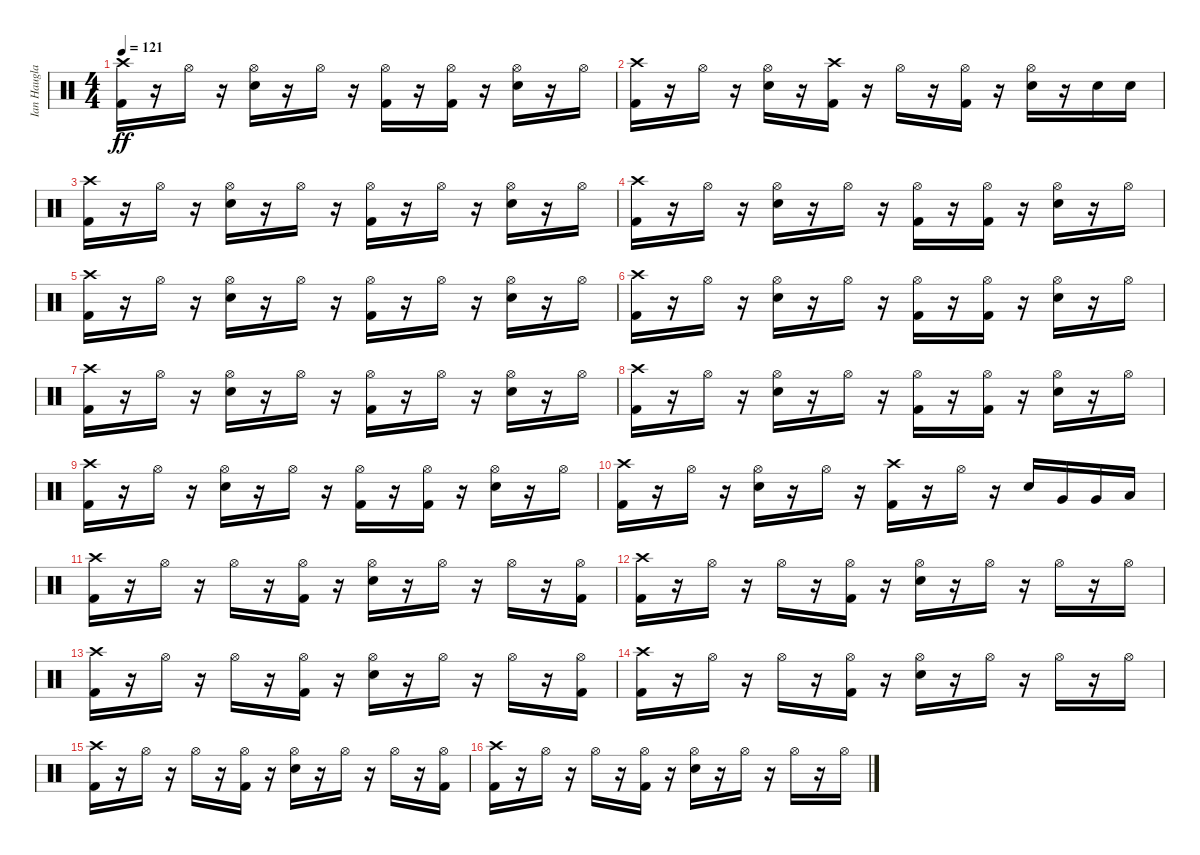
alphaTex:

\track ("Ian Haugland" "Ian Haugla") {instrument percussion}
\staff {score}
\articulation defaults
\ts (4 4)
\tempo 121
\clef neutral
\ks c
("Crash high (hit)" "Kick (hit) 2").16{dy ff} r.16 "Hi-Hat (open)".16 r.16 ("Hi-Hat (open)" "Electric Snare (hit)").16 r.16 "Hi-Hat (open)".16 r.16 ("Hi-Hat (open)" "Kick (hit) 2").16 r.16 ("Hi-Hat (open)" "Kick (hit) 2").16 r.16 ("Hi-Hat (open)" "Electric Snare (hit)").16 r.16 "Hi-Hat (open)".16 |
("Crash high (hit)" "Kick (hit) 2").16 r.16 "Hi-Hat (open)".16 r.16 ("Hi-Hat (open)" "Electric Snare (hit)").16 r.16 ("Crash high (hit)" "Kick (hit) 2").16 r.16 "Hi-Hat (open)".16 r.16 ("Hi-Hat (open)" "Kick (hit) 2").16 r.16 ("Hi-Hat (open)" "Electric Snare (hit)").16 r.16 "Electric Snare (hit)".16 "Electric Snare (hit)".16 |
("Crash high (hit)" "Kick (hit) 2").16 r.16 "Hi-Hat (open)".16 r.16 ("Hi-Hat (open)" "Electric Snare (hit)").16 r.16 "Hi-Hat (open)".16 r.16 ("Hi-Hat (open)" "Kick (hit) 2").16 r.16 "Hi-Hat (open)".16 r.16 ("Hi-Hat (open)" "Electric Snare (hit)").16 r.16 "Hi-Hat (open)".16 |
("Crash high (hit)" "Kick (hit) 2").16 r.16 "Hi-Hat (open)".16 r.16 ("Hi-Hat (open)" "Electric Snare (hit)").16 r.16 "Hi-Hat (open)".16 r.16 ("Hi-Hat (open)" "Kick (hit) 2").16 r.16 ("Hi-Hat (open)" "Kick (hit) 2").16 r.16 ("Hi-Hat (open)" "Electric Snare (hit)").16 r.16 "Hi-Hat (open)".16 |
("Crash high (hit)" "Kick (hit) 2").16 r.16 "Hi-Hat (open)".16 r.16 ("Hi-Hat (open)" "Electric Snare (hit)").16 r.16 "Hi-Hat (open)".16 r.16 ("Hi-Hat (open)" "Kick (hit) 2").16 r.16 "Hi-Hat (open)".16 r.16 ("Hi-Hat (open)" "Electric Snare (hit)").16 r.16 "Hi-Hat (open)".16 |
("Crash high (hit)" "Kick (hit) 2").16 r.16 "Hi-Hat (open)".16 r.16 ("Hi-Hat (open)" "Electric Snare (hit)").16 r.16 "Hi-Hat (open)".16 r.16 ("Hi-Hat (open)" "Kick (hit) 2").16 r.16 ("Hi-Hat (open)" "Kick (hit) 2").16 r.16 ("Hi-Hat (open)" "Electric Snare (hit)").16 r.16 "Hi-Hat (open)".16 |
("Crash high (hit)" "Kick (hit) 2").16 r.16 "Hi-Hat (open)".16 r.16 ("Hi-Hat (open)" "Electric Snare (hit)").16 r.16 "Hi-Hat (open)".16 r.16 ("Hi-Hat (open)" "Kick (hit) 2").16 r.16 "Hi-Hat (open)".16 r.16 ("Hi-Hat (open)" "Electric Snare (hit)").16 r.16 "Hi-Hat (open)".16 |
("Crash high (hit)" "Kick (hit) 2").16 r.16 "Hi-Hat (open)".16 r.16 ("Hi-Hat (open)" "Electric Snare (hit)").16 r.16 "Hi-Hat (open)".16 r.16 ("Hi-Hat (open)" "Kick (hit) 2").16 r.16 ("Hi-Hat (open)" "Kick (hit) 2").16 r.16 ("Hi-Hat (open)" "Electric Snare (hit)").16 r.16 "Hi-Hat (open)".16 |
("Crash high (hit)" "Kick (hit) 2").16 r.16 "Hi-Hat (open)".16 r.16 ("Hi-Hat (open)" "Electric Snare (hit)").16 r.16 "Hi-Hat (open)".16 r.16 ("Hi-Hat (open)" "Kick (hit) 2").16 r.16 ("Hi-Hat (open)" "Kick (hit) 2").16 r.16 ("Hi-Hat (open)" "Electric Snare (hit)").16 r.16 "Hi-Hat (open)".16 |
("Crash high (hit)" "Kick (hit) 2").16 r.16 "Hi-Hat (open)".16 r.16 ("Hi-Hat (open)" "Electric Snare (hit)").16 r.16 "Hi-Hat (open)".16 r.16 ("Crash high (hit)" "Kick (hit) 2").16 r.16 "Hi-Hat (open)".16 r.16 "Electric Snare (hit)".16 "Very Low Tom (hit)".16 "Very Low Tom (hit)".16 "Low Floor Tom (hit)".16 |
("Crash high (hit)" "Kick (hit) 2").16 r.16 "Hi-Hat (open)".16 r.16 "Hi-Hat (open)".16 r.16 ("Hi-Hat (open)" "Kick (hit) 2").16 r.16 ("Hi-Hat (open)" "Electric Snare (hit)").16 r.16 "Hi-Hat (open)".16 r.16 "Hi-Hat (open)".16 r.16 ("Hi-Hat (open)" "Kick (hit) 2").16 |
("Crash high (hit)" "Kick (hit) 2").16 r.16 "Hi-Hat (open)".16 r.16 "Hi-Hat (open)".16 r.16 ("Hi-Hat (open)" "Kick (hit) 2").16 r.16 ("Hi-Hat (open)" "Electric Snare (hit)").16 r.16 "Hi-Hat (open)".16 r.16 "Hi-Hat (open)".16 r.16 "Hi-Hat (open)".16 |
("Crash high (hit)" "Kick (hit) 2").16 r.16 "Hi-Hat (open)".16 r.16 "Hi-Hat (open)".16 r.16 ("Hi-Hat (open)" "Kick (hit) 2").16 r.16 ("Hi-Hat (open)" "Electric Snare (hit)").16 r.16 "Hi-Hat (open)".16 r.16 "Hi-Hat (open)".16 r.16 ("Hi-Hat (open)" "Kick (hit) 2").16 |
("Crash high (hit)" "Kick (hit) 2").16 r.16 "Hi-Hat (open)".16 r.16 "Hi-Hat (open)".16 r.16 ("Hi-Hat (open)" "Kick (hit) 2").16 r.16 ("Hi-Hat (open)" "Electric Snare (hit)").16 r.16 "Hi-Hat (open)".16 r.16 "Hi-Hat (open)".16 r.16 "Hi-Hat (open)".16 |
("Crash high (hit)" "Kick (hit) 2").16 r.16 "Hi-Hat (open)".16 r.16 "Hi-Hat (open)".16 r.16 ("Hi-Hat (open)" "Kick (hit) 2").16 r.16 ("Hi-Hat (open)" "Electric Snare (hit)").16 r.16 "Hi-Hat (open)".16 r.16 "Hi-Hat (open)".16 r.16 ("Hi-Hat (open)" "Kick (hit) 2").16 |
("Crash high (hit)" "Kick (hit) 2").16 r.16 "Hi-Hat (open)".16 r.16 "Hi-Hat (open)".16 r.16 ("Hi-Hat (open)" "Kick (hit) 2").16 r.16 ("Hi-Hat (open)" "Electric Snare (hit)").16 r.16 "Hi-Hat (open)".16 r.16 "Hi-Hat (open)".16 r.16 "Hi-Hat (open)".16
